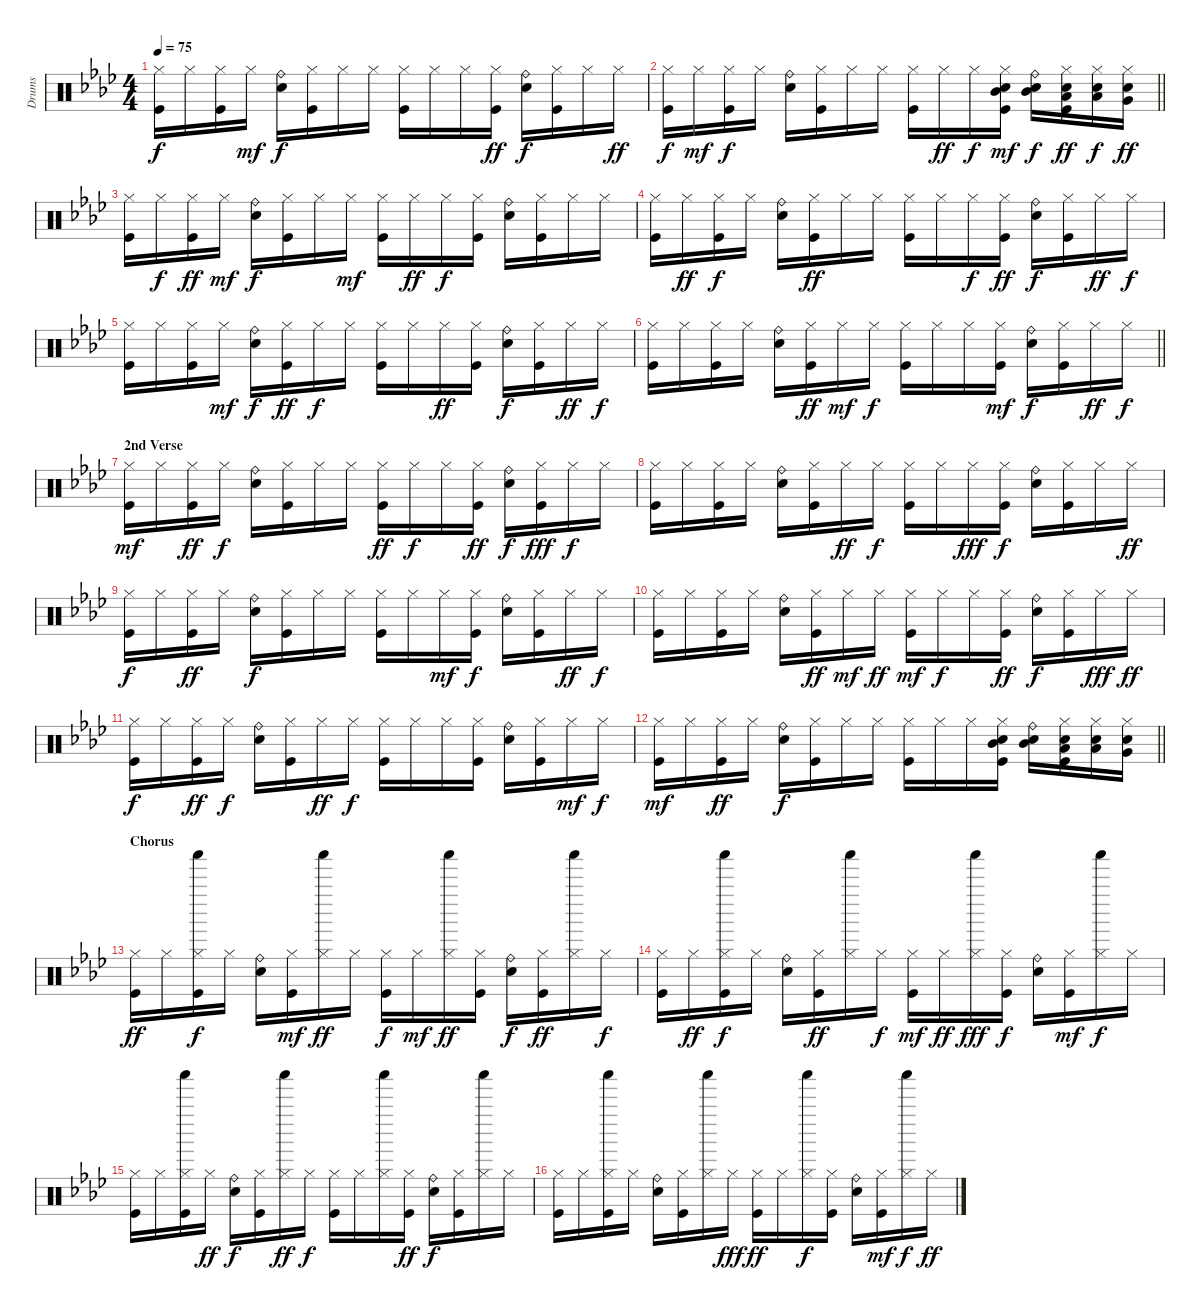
\track ("Drums" "Drums") {instrument percussion}
\staff {score}
\articulation defaults
\ts (4 4)
\tempo 75
\clef neutral
\ks fminor
("Hi-Hat (closed)" "Kick (hit)").16{dy f} "Hi-Hat (closed)".16 ("Hi-Hat (closed)" "Kick (hit)").16 "Hi-Hat (closed)".16{dy mf} ("Ride (bell)" "Electric Snare (hit)").16{dy f} ("Hi-Hat (closed)" "Kick (hit)").16 "Hi-Hat (closed)".16 "Hi-Hat (closed)".16 ("Hi-Hat (closed)" "Kick (hit)").16 "Hi-Hat (closed)".16 "Hi-Hat (closed)".16 ("Hi-Hat (closed)" "Kick (hit)").16{dy ff} ("Ride (bell)" "Electric Snare (hit)").16{dy f} ("Hi-Hat (closed)" "Kick (hit)").16 "Hi-Hat (closed)".16 "Hi-Hat (closed)".16{dy ff} |
\barLineRight lightlight
("Hi-Hat (closed)" "Kick (hit)").16{dy f} "Hi-Hat (closed)".16{dy mf} ("Hi-Hat (closed)" "Kick (hit)").16{dy f} "Hi-Hat (closed)".16 ("Ride (bell)" "Electric Snare (hit)").16 ("Hi-Hat (closed)" "Kick (hit)").16 "Hi-Hat (closed)".16 "Hi-Hat (closed)".16 ("Hi-Hat (closed)" "Kick (hit)").16 "Hi-Hat (closed)".16{dy ff} "Hi-Hat (closed)".16{dy f} ("Hi-Hat (closed)" "Electric Snare (hit)" "Kick (hit)" "Mid Tom (hit)").16{dy mf} ("Ride (bell)" "Electric Snare (hit)" "Mid Tom (hit)").16{dy f} ("Hi-Hat (closed)" "Electric Snare (hit)" "Kick (hit)" "Low Tom (hit)").16{dy ff} ("Hi-Hat (closed)" "Electric Snare (hit)" "Low Tom (hit)").16{dy f} ("Hi-Hat (closed)" "Electric Snare (hit)" "Very Low Tom (hit)").16{dy ff} |
("Hi-Hat (closed)" "Kick (hit)").16 "Hi-Hat (closed)".16{dy f} ("Hi-Hat (closed)" "Kick (hit)").16{dy ff} "Hi-Hat (closed)".16{dy mf} ("Ride (bell)" "Electric Snare (hit)").16{dy f} ("Hi-Hat (closed)" "Kick (hit)").16 "Hi-Hat (closed)".16 "Hi-Hat (closed)".16{dy mf} ("Hi-Hat (closed)" "Kick (hit)").16 "Hi-Hat (closed)".16{dy ff} "Hi-Hat (closed)".16{dy f} ("Hi-Hat (closed)" "Kick (hit)").16 ("Ride (bell)" "Electric Snare (hit)").16 ("Hi-Hat (closed)" "Kick (hit)").16 "Hi-Hat (closed)".16 "Hi-Hat (closed)".16 |
("Hi-Hat (closed)" "Kick (hit)").16 "Hi-Hat (closed)".16{dy ff} ("Hi-Hat (closed)" "Kick (hit)").16{dy f} "Hi-Hat (closed)".16 ("Ride (bell)" "Electric Snare (hit)").16 ("Hi-Hat (closed)" "Kick (hit)").16{dy ff} "Hi-Hat (closed)".16 "Hi-Hat (closed)".16 ("Hi-Hat (closed)" "Kick (hit)").16 "Hi-Hat (closed)".16 "Hi-Hat (closed)".16{dy f} ("Hi-Hat (closed)" "Kick (hit)").16{dy ff} ("Ride (bell)" "Electric Snare (hit)").16{dy f} ("Hi-Hat (closed)" "Kick (hit)").16 "Hi-Hat (closed)".16{dy ff} "Hi-Hat (closed)".16{dy f} |
("Hi-Hat (closed)" "Kick (hit)").16 "Hi-Hat (closed)".16 ("Hi-Hat (closed)" "Kick (hit)").16 "Hi-Hat (closed)".16{dy mf} ("Ride (bell)" "Electric Snare (hit)").16{dy f} ("Hi-Hat (closed)" "Kick (hit)").16{dy ff} "Hi-Hat (closed)".16{dy f} "Hi-Hat (closed)".16 ("Hi-Hat (closed)" "Kick (hit)").16 "Hi-Hat (closed)".16 "Hi-Hat (closed)".16{dy ff} ("Hi-Hat (closed)" "Kick (hit)").16 ("Ride (bell)" "Electric Snare (hit)").16{dy f} ("Hi-Hat (closed)" "Kick (hit)").16 "Hi-Hat (closed)".16{dy ff} "Hi-Hat (closed)".16{dy f} |
\barLineRight lightlight
("Hi-Hat (closed)" "Kick (hit)").16 "Hi-Hat (closed)".16 ("Hi-Hat (closed)" "Kick (hit)").16 "Hi-Hat (closed)".16 ("Ride (bell)" "Electric Snare (hit)").16 ("Hi-Hat (closed)" "Kick (hit)").16{dy ff} "Hi-Hat (closed)".16{dy mf} "Hi-Hat (closed)".16{dy f} ("Hi-Hat (closed)" "Kick (hit)").16 "Hi-Hat (closed)".16 "Hi-Hat (closed)".16 ("Hi-Hat (closed)" "Kick (hit)").16{dy mf} ("Ride (bell)" "Electric Snare (hit)").16{dy f} ("Hi-Hat (closed)" "Kick (hit)").16 "Hi-Hat (closed)".16{dy ff} "Hi-Hat (closed)".16{dy f} |
\section ("" "2nd Verse")
("Hi-Hat (closed)" "Kick (hit)").16{dy mf} "Hi-Hat (closed)".16 ("Hi-Hat (closed)" "Kick (hit)").16{dy ff} "Hi-Hat (closed)".16{dy f} ("Ride (bell)" "Electric Snare (hit)").16 ("Hi-Hat (closed)" "Kick (hit)").16 "Hi-Hat (closed)".16 "Hi-Hat (closed)".16 ("Hi-Hat (closed)" "Kick (hit)").16{dy ff} "Hi-Hat (closed)".16{dy f} "Hi-Hat (closed)".16 ("Hi-Hat (closed)" "Kick (hit)").16{dy ff} ("Ride (bell)" "Electric Snare (hit)").16{dy f} ("Hi-Hat (closed)" "Kick (hit)").16{dy fff} "Hi-Hat (closed)".16{dy f} "Hi-Hat (closed)".16 |
("Hi-Hat (closed)" "Kick (hit)").16 "Hi-Hat (closed)".16 ("Hi-Hat (closed)" "Kick (hit)").16 "Hi-Hat (closed)".16 ("Ride (bell)" "Electric Snare (hit)").16 ("Hi-Hat (closed)" "Kick (hit)").16 "Hi-Hat (closed)".16{dy ff} "Hi-Hat (closed)".16{dy f} ("Hi-Hat (closed)" "Kick (hit)").16 "Hi-Hat (closed)".16 "Hi-Hat (closed)".16{dy fff} ("Hi-Hat (closed)" "Kick (hit)").16{dy f} ("Ride (bell)" "Electric Snare (hit)").16 ("Hi-Hat (closed)" "Kick (hit)").16 "Hi-Hat (closed)".16 "Hi-Hat (closed)".16{dy ff} |
("Hi-Hat (closed)" "Kick (hit)").16{dy f} "Hi-Hat (closed)".16 ("Hi-Hat (closed)" "Kick (hit)").16{dy ff} "Hi-Hat (closed)".16 ("Ride (bell)" "Electric Snare (hit)").16{dy f} ("Hi-Hat (closed)" "Kick (hit)").16 "Hi-Hat (closed)".16 "Hi-Hat (closed)".16 ("Hi-Hat (closed)" "Kick (hit)").16 "Hi-Hat (closed)".16 "Hi-Hat (closed)".16{dy mf} ("Hi-Hat (closed)" "Kick (hit)").16{dy f} ("Ride (bell)" "Electric Snare (hit)").16 ("Hi-Hat (closed)" "Kick (hit)").16 "Hi-Hat (closed)".16{dy ff} "Hi-Hat (closed)".16{dy f} |
("Hi-Hat (closed)" "Kick (hit)").16 "Hi-Hat (closed)".16 ("Hi-Hat (closed)" "Kick (hit)").16 "Hi-Hat (closed)".16 ("Ride (bell)" "Electric Snare (hit)").16 ("Hi-Hat (closed)" "Kick (hit)").16{dy ff} "Hi-Hat (closed)".16{dy mf} "Hi-Hat (closed)".16{dy ff} ("Hi-Hat (closed)" "Kick (hit)").16{dy mf} "Hi-Hat (closed)".16{dy f} "Hi-Hat (closed)".16 ("Hi-Hat (closed)" "Kick (hit)").16{dy ff} ("Ride (bell)" "Electric Snare (hit)").16{dy f} ("Hi-Hat (closed)" "Kick (hit)").16 "Hi-Hat (closed)".16{dy fff} "Hi-Hat (closed)".16{dy ff} |
("Hi-Hat (closed)" "Kick (hit)").16{dy f} "Hi-Hat (closed)".16 ("Hi-Hat (closed)" "Kick (hit)").16{dy ff} "Hi-Hat (closed)".16{dy f} ("Ride (bell)" "Electric Snare (hit)").16 ("Hi-Hat (closed)" "Kick (hit)").16 "Hi-Hat (closed)".16{dy ff} "Hi-Hat (closed)".16{dy f} ("Hi-Hat (closed)" "Kick (hit)").16 "Hi-Hat (closed)".16 "Hi-Hat (closed)".16 ("Hi-Hat (closed)" "Kick (hit)").16 ("Ride (bell)" "Electric Snare (hit)").16 ("Hi-Hat (closed)" "Kick (hit)").16 "Hi-Hat (closed)".16{dy mf} "Hi-Hat (closed)".16{dy f} |
\barLineRight lightlight
("Hi-Hat (closed)" "Kick (hit)").16{dy mf} "Hi-Hat (closed)".16 ("Hi-Hat (closed)" "Kick (hit)").16{dy ff} "Hi-Hat (closed)".16 ("Ride (bell)" "Electric Snare (hit)").16{dy f} ("Hi-Hat (closed)" "Kick (hit)").16 "Hi-Hat (closed)".16 "Hi-Hat (closed)".16 ("Hi-Hat (closed)" "Kick (hit)").16 "Hi-Hat (closed)".16 "Hi-Hat (closed)".16 ("Hi-Hat (closed)" "Electric Snare (hit)" "Kick (hit)" "Mid Tom (hit)").16 ("Ride (bell)" "Electric Snare (hit)" "Mid Tom (hit)").16 ("Hi-Hat (closed)" "Electric Snare (hit)" "Kick (hit)" "Low Tom (hit)").16 ("Hi-Hat (closed)" "Electric Snare (hit)" "Low Tom (hit)").16 ("Hi-Hat (closed)" "Electric Snare (hit)" "Very Low Tom (hit)").16 |
\section ("" "Chorus")
("Hi-Hat (closed)" "Kick (hit)").16{dy ff} "Hi-Hat (closed)".16 ("Shaker (hit)" "Hi-Hat (closed)" "Kick (hit)").16{dy f} "Hi-Hat (closed)".16 ("Ride (bell)" "Electric Snare (hit)").16 ("Hi-Hat (closed)" "Kick (hit)").16{dy mf} ("Shaker (hit)" "Hi-Hat (closed)").16{dy ff} "Hi-Hat (closed)".16 ("Hi-Hat (closed)" "Kick (hit)").16{dy f} "Hi-Hat (closed)".16{dy mf} ("Shaker (hit)" "Hi-Hat (closed)").16{dy ff} ("Hi-Hat (closed)" "Kick (hit)").16 ("Ride (bell)" "Electric Snare (hit)").16{dy f} ("Hi-Hat (closed)" "Kick (hit)").16{dy ff} ("Shaker (hit)" "Hi-Hat (closed)").16 "Hi-Hat (closed)".16{dy f} |
("Hi-Hat (closed)" "Kick (hit)").16 "Hi-Hat (closed)".16{dy ff} ("Shaker (hit)" "Hi-Hat (closed)" "Kick (hit)").16{dy f} "Hi-Hat (closed)".16 ("Ride (bell)" "Electric Snare (hit)").16 ("Hi-Hat (closed)" "Kick (hit)").16{dy ff} ("Shaker (hit)" "Hi-Hat (closed)").16 "Hi-Hat (closed)".16{dy f} ("Hi-Hat (closed)" "Kick (hit)").16{dy mf} "Hi-Hat (closed)".16{dy ff} ("Shaker (hit)" "Hi-Hat (closed)").16{dy fff} ("Hi-Hat (closed)" "Kick (hit)").16{dy f} ("Ride (bell)" "Electric Snare (hit)").16 ("Hi-Hat (closed)" "Kick (hit)").16{dy mf} ("Shaker (hit)" "Hi-Hat (closed)").16{dy f} "Hi-Hat (closed)".16 |
("Hi-Hat (closed)" "Kick (hit)").16 "Hi-Hat (closed)".16 ("Shaker (hit)" "Hi-Hat (closed)" "Kick (hit)").16 "Hi-Hat (closed)".16{dy ff} ("Ride (bell)" "Electric Snare (hit)").16{dy f} ("Hi-Hat (closed)" "Kick (hit)").16 ("Shaker (hit)" "Hi-Hat (closed)").16{dy ff} "Hi-Hat (closed)".16{dy f} ("Hi-Hat (closed)" "Kick (hit)").16 "Hi-Hat (closed)".16 ("Shaker (hit)" "Hi-Hat (closed)").16 ("Hi-Hat (closed)" "Kick (hit)").16{dy ff} ("Ride (bell)" "Electric Snare (hit)").16{dy f} ("Hi-Hat (closed)" "Kick (hit)").16 ("Shaker (hit)" "Hi-Hat (closed)").16 "Hi-Hat (closed)".16 |
("Hi-Hat (closed)" "Kick (hit)").16 "Hi-Hat (closed)".16 ("Shaker (hit)" "Hi-Hat (closed)" "Kick (hit)").16 "Hi-Hat (closed)".16 ("Ride (bell)" "Electric Snare (hit)").16 ("Hi-Hat (closed)" "Kick (hit)").16 ("Shaker (hit)" "Hi-Hat (closed)").16 "Hi-Hat (closed)".16{dy fff} ("Hi-Hat (closed)" "Kick (hit)").16{dy ff} "Hi-Hat (closed)".16 ("Shaker (hit)" "Hi-Hat (closed)").16{dy f} ("Hi-Hat (closed)" "Kick (hit)").16 ("Ride (bell)" "Electric Snare (hit)").16 ("Hi-Hat (closed)" "Kick (hit)").16{dy mf} ("Shaker (hit)" "Hi-Hat (closed)").16{dy f} "Hi-Hat (closed)".16{dy ff}
